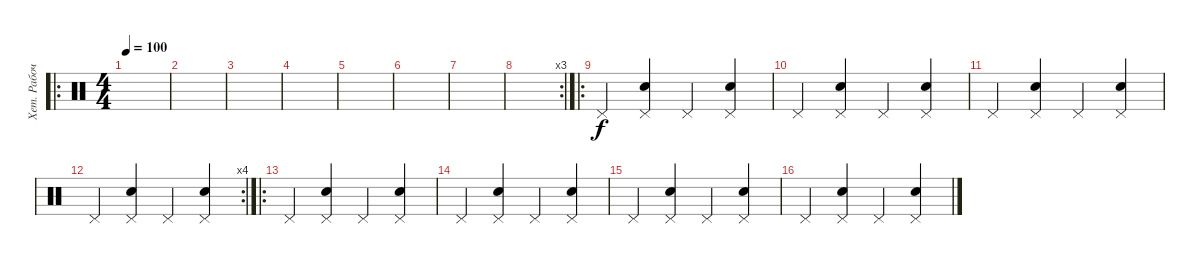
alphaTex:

\track ("Хет. Рабочий" "Хет. Рабоч") {instrument percussion}
\staff {score}
\articulation defaults
\ro
\ts (4 4)
\tempo 100
\clef neutral
\ks c
|
|
|
|
|
|
|
\rc 3
|
\ro "Pedal Hi-Hat (hit)".4
("Pedal Hi-Hat (hit)" "Electric Snare (hit)").4 "Pedal Hi-Hat (hit)".4 ("Pedal Hi-Hat (hit)" "Electric Snare (hit)").4 |
"Pedal Hi-Hat (hit)".4 ("Pedal Hi-Hat (hit)" "Electric Snare (hit)").4 "Pedal Hi-Hat (hit)".4 ("Pedal Hi-Hat (hit)" "Electric Snare (hit)").4 |
"Pedal Hi-Hat (hit)".4 ("Pedal Hi-Hat (hit)" "Electric Snare (hit)").4 "Pedal Hi-Hat (hit)".4 ("Pedal Hi-Hat (hit)" "Electric Snare (hit)").4 |
\rc 4 "Pedal Hi-Hat (hit)".4
("Pedal Hi-Hat (hit)" "Electric Snare (hit)").4 "Pedal Hi-Hat (hit)".4 ("Pedal Hi-Hat (hit)" "Electric Snare (hit)").4 |
\ro "Pedal Hi-Hat (hit)".4
("Pedal Hi-Hat (hit)" "Electric Snare (hit)").4 "Pedal Hi-Hat (hit)".4 ("Pedal Hi-Hat (hit)" "Electric Snare (hit)").4 |
"Pedal Hi-Hat (hit)".4 ("Pedal Hi-Hat (hit)" "Electric Snare (hit)").4 "Pedal Hi-Hat (hit)".4 ("Pedal Hi-Hat (hit)" "Electric Snare (hit)").4 |
"Pedal Hi-Hat (hit)".4 ("Pedal Hi-Hat (hit)" "Electric Snare (hit)").4 "Pedal Hi-Hat (hit)".4 ("Pedal Hi-Hat (hit)" "Electric Snare (hit)").4 |
"Pedal Hi-Hat (hit)".4 ("Pedal Hi-Hat (hit)" "Electric Snare (hit)").4 "Pedal Hi-Hat (hit)".4 ("Pedal Hi-Hat (hit)" "Electric Snare (hit)").4
